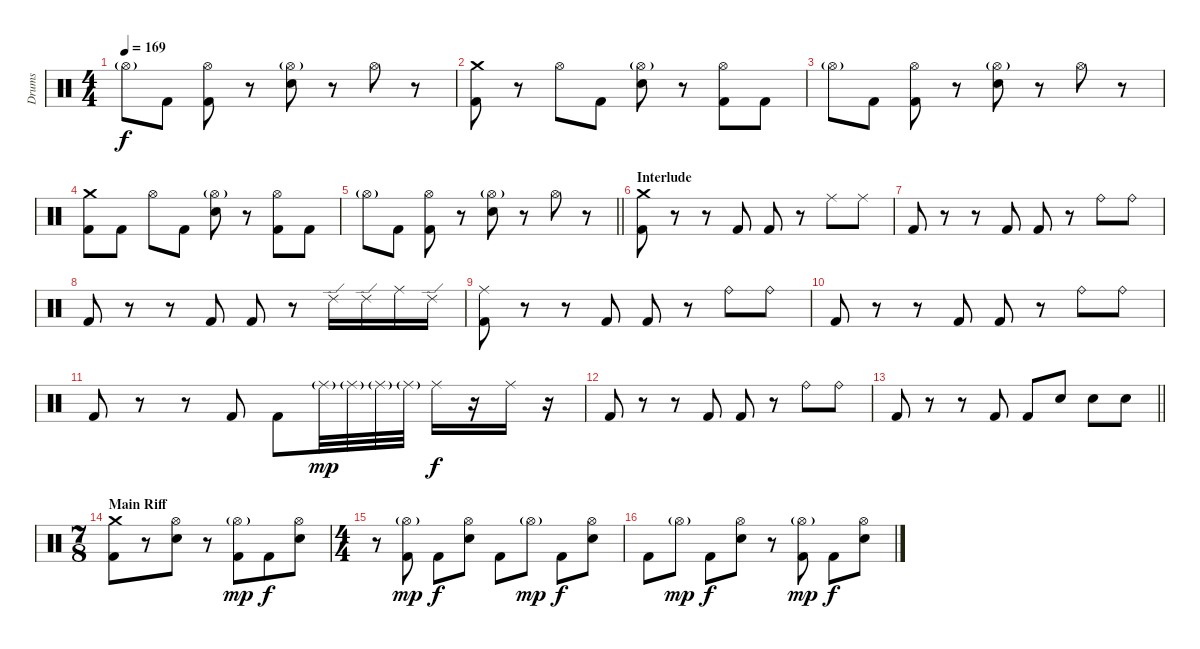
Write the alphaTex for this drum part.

\track ("Drums" "Drums") {instrument percussion}
\staff {score}
\articulation defaults
\ts (4 4)
\tempo 169
\clef neutral
\ks c "Hi-Hat (open)"{g}.8{dy f} "Kick (hit) 2".8
("Hi-Hat (open)" "Kick (hit) 2").8 r.8 ("Hi-Hat (open)"{g} "Electric Snare (hit)").8 r.8 "Hi-Hat (open)".8 r.8 |
("Crash medium (hit)" "Kick (hit) 2").8 r.8 "Hi-Hat (open)".8 "Kick (hit) 2".8 ("Hi-Hat (open)"{g} "Electric Snare (hit)").8 r.8 ("Hi-Hat (open)" "Kick (hit) 2").8 "Kick (hit) 2".8 |
"Hi-Hat (open)"{g}.8 "Kick (hit) 2".8 ("Hi-Hat (open)" "Kick (hit) 2").8 r.8 ("Hi-Hat (open)"{g} "Electric Snare (hit)").8 r.8 "Hi-Hat (open)".8 r.8 |
("Crash medium (hit)" "Kick (hit) 2").8 "Kick (hit) 2".8 "Hi-Hat (open)".8 "Kick (hit) 2".8 ("Hi-Hat (open)"{g} "Electric Snare (hit)").8 r.8 ("Hi-Hat (open)" "Kick (hit) 2").8 "Kick (hit) 2".8 |
\barLineRight lightlight "Hi-Hat (open)"{g}.8 "Kick (hit) 2".8
("Hi-Hat (open)" "Kick (hit) 2").8 r.8 ("Hi-Hat (open)"{g} "Electric Snare (hit)").8 r.8 "Hi-Hat (open)".8 r.8 |
\section ("" "Interlude")
("Crash medium (hit)" "Kick (hit) 2").8 r.8 r.8 "Kick (hit) 2".8 "Kick (hit) 2".8 r.8 "Ride (middle)".8 "Ride (middle)".8 |
"Kick (hit) 2".8 r.8 r.8 "Kick (hit) 2".8 "Kick (hit) 2".8 r.8 "Ride (bell)".8 "Ride (bell)".8 |
"Kick (hit) 2".8 r.8 r.8 "Kick (hit) 2".8 "Kick (hit) 2".8 r.8 "Ride (edge) 2".16 "Ride (edge) 2".16 "Ride (middle)".16 "Ride (edge) 2".16 |
("Ride (middle)" "Kick (hit) 2").8 r.8 r.8 "Kick (hit) 2".8 "Kick (hit) 2".8 r.8 "Ride (bell)".8 "Ride (bell)".8 |
"Kick (hit) 2".8 r.8 r.8 "Kick (hit) 2".8 "Kick (hit) 2".8 r.8 "Ride (bell)".8 "Ride (bell)".8 |
"Kick (hit) 2".8 r.8 r.8 "Kick (hit) 2".8 "Kick (hit) 2".8 "Ride (middle)"{g}.32{dy mp} "Ride (middle)"{g}.32 "Ride (middle)"{g}.32 "Ride (middle)"{g}.32 "Ride (middle)".16{dy f} r.16 "Ride (middle)".16 r.16 |
"Kick (hit) 2".8 r.8 r.8 "Kick (hit) 2".8 "Kick (hit) 2".8 r.8 "Ride (bell)".8 "Ride (bell)".8 |
\barLineRight lightlight "Kick (hit) 2".8
r.8 r.8 "Kick (hit) 2".8 "Kick (hit) 2".8 "Electric Snare (hit)".8 "Electric Snare (hit)".8 "Electric Snare (hit)".8 |
\ts (7 8)
\section ("" "Main Riff")
("Crash medium (hit)" "Kick (hit) 2").8 r.8 ("Hi-Hat (open)" "Electric Snare (hit)").8 r.8 ("Hi-Hat (open)"{g} "Kick (hit) 2").8{dy mp} "Kick (hit) 2".8{dy f} ("Hi-Hat (open)" "Electric Snare (hit)").8 |
\ts (4 4)
r.8 ("Hi-Hat (open)"{g} "Kick (hit) 2").8{dy mp} "Kick (hit) 2".8{dy f} ("Hi-Hat (open)" "Electric Snare (hit)").8 "Kick (hit) 2".8 "Hi-Hat (open)"{g}.8{dy mp} "Kick (hit) 2".8{dy f} ("Hi-Hat (open)" "Electric Snare (hit)").8 |
"Kick (hit) 2".8 "Hi-Hat (open)"{g}.8{dy mp} "Kick (hit) 2".8{dy f} ("Hi-Hat (open)" "Electric Snare (hit)").8 r.8 ("Hi-Hat (open)"{g} "Kick (hit) 2").8{dy mp} "Kick (hit) 2".8{dy f} ("Hi-Hat (open)" "Electric Snare (hit)").8
